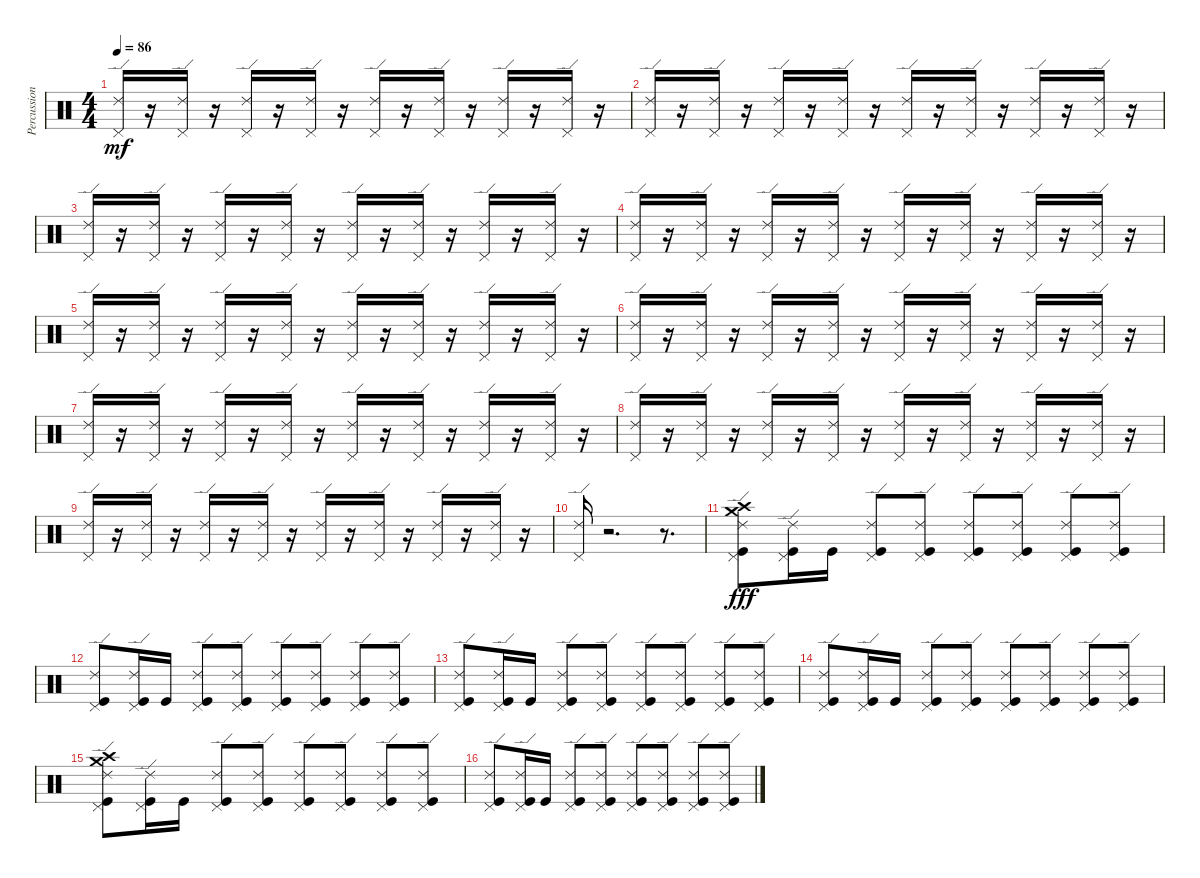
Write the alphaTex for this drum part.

\track ("Percussion" "Percussion") {instrument percussion}
\staff {score}
\articulation defaults
\ts (4 4)
\tempo 86
\clef neutral
\ks c
("Pedal Hi-Hat (hit)" "Ride (edge) 2").16{dy mf} r.16 ("Pedal Hi-Hat (hit)" "Ride (edge) 2").16 r.16 ("Pedal Hi-Hat (hit)" "Ride (edge) 2").16 r.16 ("Pedal Hi-Hat (hit)" "Ride (edge) 2").16 r.16 ("Pedal Hi-Hat (hit)" "Ride (edge) 2").16 r.16 ("Pedal Hi-Hat (hit)" "Ride (edge) 2").16 r.16 ("Pedal Hi-Hat (hit)" "Ride (edge) 2").16 r.16 ("Pedal Hi-Hat (hit)" "Ride (edge) 2").16 r.16 |
("Pedal Hi-Hat (hit)" "Ride (edge) 2").16 r.16 ("Pedal Hi-Hat (hit)" "Ride (edge) 2").16 r.16 ("Pedal Hi-Hat (hit)" "Ride (edge) 2").16 r.16 ("Pedal Hi-Hat (hit)" "Ride (edge) 2").16 r.16 ("Pedal Hi-Hat (hit)" "Ride (edge) 2").16 r.16 ("Pedal Hi-Hat (hit)" "Ride (edge) 2").16 r.16 ("Pedal Hi-Hat (hit)" "Ride (edge) 2").16 r.16 ("Pedal Hi-Hat (hit)" "Ride (edge) 2").16 r.16 |
("Pedal Hi-Hat (hit)" "Ride (edge) 2").16 r.16 ("Pedal Hi-Hat (hit)" "Ride (edge) 2").16 r.16 ("Pedal Hi-Hat (hit)" "Ride (edge) 2").16 r.16 ("Pedal Hi-Hat (hit)" "Ride (edge) 2").16 r.16 ("Pedal Hi-Hat (hit)" "Ride (edge) 2").16 r.16 ("Pedal Hi-Hat (hit)" "Ride (edge) 2").16 r.16 ("Pedal Hi-Hat (hit)" "Ride (edge) 2").16 r.16 ("Pedal Hi-Hat (hit)" "Ride (edge) 2").16 r.16 |
("Pedal Hi-Hat (hit)" "Ride (edge) 2").16 r.16 ("Pedal Hi-Hat (hit)" "Ride (edge) 2").16 r.16 ("Pedal Hi-Hat (hit)" "Ride (edge) 2").16 r.16 ("Pedal Hi-Hat (hit)" "Ride (edge) 2").16 r.16 ("Pedal Hi-Hat (hit)" "Ride (edge) 2").16 r.16 ("Pedal Hi-Hat (hit)" "Ride (edge) 2").16 r.16 ("Pedal Hi-Hat (hit)" "Ride (edge) 2").16 r.16 ("Pedal Hi-Hat (hit)" "Ride (edge) 2").16 r.16 |
("Pedal Hi-Hat (hit)" "Ride (edge) 2").16 r.16 ("Pedal Hi-Hat (hit)" "Ride (edge) 2").16 r.16 ("Pedal Hi-Hat (hit)" "Ride (edge) 2").16 r.16 ("Pedal Hi-Hat (hit)" "Ride (edge) 2").16 r.16 ("Pedal Hi-Hat (hit)" "Ride (edge) 2").16 r.16 ("Pedal Hi-Hat (hit)" "Ride (edge) 2").16 r.16 ("Pedal Hi-Hat (hit)" "Ride (edge) 2").16 r.16 ("Pedal Hi-Hat (hit)" "Ride (edge) 2").16 r.16 |
("Pedal Hi-Hat (hit)" "Ride (edge) 2").16 r.16 ("Pedal Hi-Hat (hit)" "Ride (edge) 2").16 r.16 ("Pedal Hi-Hat (hit)" "Ride (edge) 2").16 r.16 ("Pedal Hi-Hat (hit)" "Ride (edge) 2").16 r.16 ("Pedal Hi-Hat (hit)" "Ride (edge) 2").16 r.16 ("Pedal Hi-Hat (hit)" "Ride (edge) 2").16 r.16 ("Pedal Hi-Hat (hit)" "Ride (edge) 2").16 r.16 ("Pedal Hi-Hat (hit)" "Ride (edge) 2").16 r.16 |
("Pedal Hi-Hat (hit)" "Ride (edge) 2").16 r.16 ("Pedal Hi-Hat (hit)" "Ride (edge) 2").16 r.16 ("Pedal Hi-Hat (hit)" "Ride (edge) 2").16 r.16 ("Pedal Hi-Hat (hit)" "Ride (edge) 2").16 r.16 ("Pedal Hi-Hat (hit)" "Ride (edge) 2").16 r.16 ("Pedal Hi-Hat (hit)" "Ride (edge) 2").16 r.16 ("Pedal Hi-Hat (hit)" "Ride (edge) 2").16 r.16 ("Pedal Hi-Hat (hit)" "Ride (edge) 2").16 r.16 |
("Pedal Hi-Hat (hit)" "Ride (edge) 2").16 r.16 ("Pedal Hi-Hat (hit)" "Ride (edge) 2").16 r.16 ("Pedal Hi-Hat (hit)" "Ride (edge) 2").16 r.16 ("Pedal Hi-Hat (hit)" "Ride (edge) 2").16 r.16 ("Pedal Hi-Hat (hit)" "Ride (edge) 2").16 r.16 ("Pedal Hi-Hat (hit)" "Ride (edge) 2").16 r.16 ("Pedal Hi-Hat (hit)" "Ride (edge) 2").16 r.16 ("Pedal Hi-Hat (hit)" "Ride (edge) 2").16 r.16 |
("Pedal Hi-Hat (hit)" "Ride (edge) 2").16 r.16 ("Pedal Hi-Hat (hit)" "Ride (edge) 2").16 r.16 ("Pedal Hi-Hat (hit)" "Ride (edge) 2").16 r.16 ("Pedal Hi-Hat (hit)" "Ride (edge) 2").16 r.16 ("Pedal Hi-Hat (hit)" "Ride (edge) 2").16 r.16 ("Pedal Hi-Hat (hit)" "Ride (edge) 2").16 r.16 ("Pedal Hi-Hat (hit)" "Ride (edge) 2").16 r.16 ("Pedal Hi-Hat (hit)" "Ride (edge) 2").16 r.16 |
("Pedal Hi-Hat (hit)" "Ride (edge) 2").16 r.2{d} r.8{d} |
("Kick (hit)" "Ride (edge) 2" "Pedal Hi-Hat (hit)" "Crash high (hit)" "Crash medium (hit)").8{dy fff} ("Pedal Hi-Hat (hit)" "Ride (edge) 2" "Kick (hit)").16 "Kick (hit)".16 ("Pedal Hi-Hat (hit)" "Ride (edge) 2" "Kick (hit)").8 ("Ride (edge) 2" "Pedal Hi-Hat (hit)" "Kick (hit)").8 ("Pedal Hi-Hat (hit)" "Ride (edge) 2" "Kick (hit)").8 ("Pedal Hi-Hat (hit)" "Ride (edge) 2" "Kick (hit)").8 ("Pedal Hi-Hat (hit)" "Ride (edge) 2" "Kick (hit)").8 ("Pedal Hi-Hat (hit)" "Ride (edge) 2" "Kick (hit)").8 |
("Pedal Hi-Hat (hit)" "Ride (edge) 2" "Kick (hit)").8 ("Pedal Hi-Hat (hit)" "Ride (edge) 2" "Kick (hit)").16 "Kick (hit)".16 ("Pedal Hi-Hat (hit)" "Ride (edge) 2" "Kick (hit)").8 ("Pedal Hi-Hat (hit)" "Ride (edge) 2" "Kick (hit)").8 ("Pedal Hi-Hat (hit)" "Ride (edge) 2" "Kick (hit)").8 ("Pedal Hi-Hat (hit)" "Ride (edge) 2" "Kick (hit)").8 ("Pedal Hi-Hat (hit)" "Ride (edge) 2" "Kick (hit)").8 ("Pedal Hi-Hat (hit)" "Ride (edge) 2" "Kick (hit)").8 |
("Pedal Hi-Hat (hit)" "Ride (edge) 2" "Kick (hit)").8 ("Pedal Hi-Hat (hit)" "Ride (edge) 2" "Kick (hit)").16 "Kick (hit)".16 ("Pedal Hi-Hat (hit)" "Ride (edge) 2" "Kick (hit)").8 ("Pedal Hi-Hat (hit)" "Ride (edge) 2" "Kick (hit)").8 ("Pedal Hi-Hat (hit)" "Ride (edge) 2" "Kick (hit)").8 ("Pedal Hi-Hat (hit)" "Ride (edge) 2" "Kick (hit)").8 ("Pedal Hi-Hat (hit)" "Ride (edge) 2" "Kick (hit)").8 ("Pedal Hi-Hat (hit)" "Ride (edge) 2" "Kick (hit)").8 |
("Pedal Hi-Hat (hit)" "Ride (edge) 2" "Kick (hit)").8 ("Pedal Hi-Hat (hit)" "Ride (edge) 2" "Kick (hit)").16 "Kick (hit)".16 ("Pedal Hi-Hat (hit)" "Ride (edge) 2" "Kick (hit)").8 ("Pedal Hi-Hat (hit)" "Ride (edge) 2" "Kick (hit)").8 ("Pedal Hi-Hat (hit)" "Ride (edge) 2" "Kick (hit)").8 ("Pedal Hi-Hat (hit)" "Ride (edge) 2" "Kick (hit)").8 ("Pedal Hi-Hat (hit)" "Ride (edge) 2" "Kick (hit)").8 ("Pedal Hi-Hat (hit)" "Ride (edge) 2" "Kick (hit)").8 |
("Crash medium (hit)" "Crash high (hit)" "Pedal Hi-Hat (hit)" "Ride (edge) 2" "Kick (hit)").8 ("Pedal Hi-Hat (hit)" "Ride (edge) 2" "Kick (hit)").16 "Kick (hit)".16 ("Pedal Hi-Hat (hit)" "Ride (edge) 2" "Kick (hit)").8 ("Pedal Hi-Hat (hit)" "Ride (edge) 2" "Kick (hit)").8 ("Pedal Hi-Hat (hit)" "Ride (edge) 2" "Kick (hit)").8 ("Pedal Hi-Hat (hit)" "Ride (edge) 2" "Kick (hit)").8 ("Pedal Hi-Hat (hit)" "Ride (edge) 2" "Kick (hit)").8 ("Pedal Hi-Hat (hit)" "Ride (edge) 2" "Kick (hit)").8 |
("Pedal Hi-Hat (hit)" "Ride (edge) 2" "Kick (hit)").8 ("Pedal Hi-Hat (hit)" "Ride (edge) 2" "Kick (hit)").16 "Kick (hit)".16 ("Pedal Hi-Hat (hit)" "Ride (edge) 2" "Kick (hit)").8 ("Pedal Hi-Hat (hit)" "Ride (edge) 2" "Kick (hit)").8 ("Pedal Hi-Hat (hit)" "Ride (edge) 2" "Kick (hit)").8 ("Pedal Hi-Hat (hit)" "Ride (edge) 2" "Kick (hit)").8 ("Pedal Hi-Hat (hit)" "Ride (edge) 2" "Kick (hit)").8 ("Pedal Hi-Hat (hit)" "Ride (edge) 2" "Kick (hit)").8
